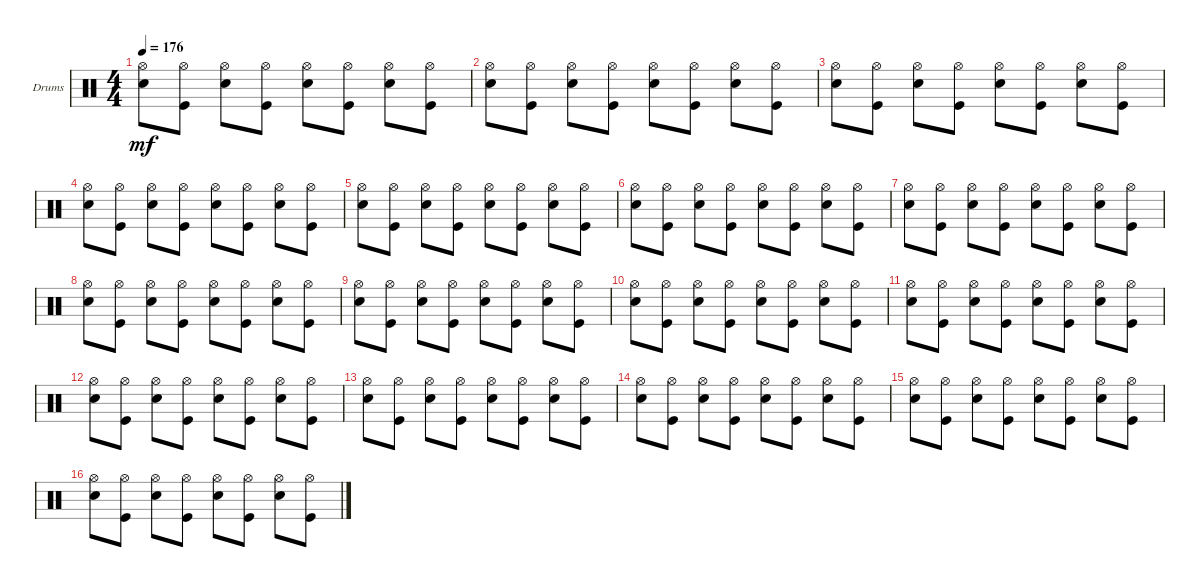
\bracketExtendMode groupsimilarinstruments
\firstSystemTrackNameOrientation horizontal
\otherSystemsTrackNameOrientation horizontal
\track ("Drums" "Drums") {instrument percussion}
\staff {score}
\articulation defaults
\ts (4 4)
\tempo 176
\clef neutral
\ks c
("Snare (hit) 2" "Hi-Hat (open)").8{dy mf} ("Kick (hit)" "Hi-Hat (open)").8 ("Snare (hit) 2" "Hi-Hat (open)").8 ("Kick (hit)" "Hi-Hat (open)").8 ("Snare (hit) 2" "Hi-Hat (open)").8 ("Kick (hit)" "Hi-Hat (open)").8 ("Snare (hit) 2" "Hi-Hat (open)").8 ("Kick (hit)" "Hi-Hat (open)").8 |
("Snare (hit) 2" "Hi-Hat (open)").8 ("Kick (hit)" "Hi-Hat (open)").8 ("Snare (hit) 2" "Hi-Hat (open)").8 ("Kick (hit)" "Hi-Hat (open)").8 ("Snare (hit) 2" "Hi-Hat (open)").8 ("Kick (hit)" "Hi-Hat (open)").8 ("Snare (hit) 2" "Hi-Hat (open)").8 ("Kick (hit)" "Hi-Hat (open)").8 |
("Snare (hit) 2" "Hi-Hat (open)").8 ("Kick (hit)" "Hi-Hat (open)").8 ("Snare (hit) 2" "Hi-Hat (open)").8 ("Kick (hit)" "Hi-Hat (open)").8 ("Snare (hit) 2" "Hi-Hat (open)").8 ("Kick (hit)" "Hi-Hat (open)").8 ("Snare (hit) 2" "Hi-Hat (open)").8 ("Kick (hit)" "Hi-Hat (open)").8 |
("Snare (hit) 2" "Hi-Hat (open)").8 ("Kick (hit)" "Hi-Hat (open)").8 ("Snare (hit) 2" "Hi-Hat (open)").8 ("Kick (hit)" "Hi-Hat (open)").8 ("Snare (hit) 2" "Hi-Hat (open)").8 ("Kick (hit)" "Hi-Hat (open)").8 ("Snare (hit) 2" "Hi-Hat (open)").8 ("Kick (hit)" "Hi-Hat (open)").8 |
("Snare (hit) 2" "Hi-Hat (open)").8 ("Kick (hit)" "Hi-Hat (open)").8 ("Snare (hit) 2" "Hi-Hat (open)").8 ("Kick (hit)" "Hi-Hat (open)").8 ("Snare (hit) 2" "Hi-Hat (open)").8 ("Kick (hit)" "Hi-Hat (open)").8 ("Snare (hit) 2" "Hi-Hat (open)").8 ("Kick (hit)" "Hi-Hat (open)").8 |
("Snare (hit) 2" "Hi-Hat (open)").8 ("Kick (hit)" "Hi-Hat (open)").8 ("Snare (hit) 2" "Hi-Hat (open)").8 ("Kick (hit)" "Hi-Hat (open)").8 ("Snare (hit) 2" "Hi-Hat (open)").8 ("Kick (hit)" "Hi-Hat (open)").8 ("Snare (hit) 2" "Hi-Hat (open)").8 ("Kick (hit)" "Hi-Hat (open)").8 |
("Snare (hit) 2" "Hi-Hat (open)").8 ("Kick (hit)" "Hi-Hat (open)").8 ("Snare (hit) 2" "Hi-Hat (open)").8 ("Kick (hit)" "Hi-Hat (open)").8 ("Snare (hit) 2" "Hi-Hat (open)").8 ("Kick (hit)" "Hi-Hat (open)").8 ("Snare (hit) 2" "Hi-Hat (open)").8 ("Kick (hit)" "Hi-Hat (open)").8 |
("Snare (hit) 2" "Hi-Hat (open)").8 ("Kick (hit)" "Hi-Hat (open)").8 ("Snare (hit) 2" "Hi-Hat (open)").8 ("Kick (hit)" "Hi-Hat (open)").8 ("Snare (hit) 2" "Hi-Hat (open)").8 ("Kick (hit)" "Hi-Hat (open)").8 ("Snare (hit) 2" "Hi-Hat (open)").8 ("Kick (hit)" "Hi-Hat (open)").8 |
("Snare (hit) 2" "Hi-Hat (open)").8 ("Kick (hit)" "Hi-Hat (open)").8 ("Snare (hit) 2" "Hi-Hat (open)").8 ("Kick (hit)" "Hi-Hat (open)").8 ("Snare (hit) 2" "Hi-Hat (open)").8 ("Kick (hit)" "Hi-Hat (open)").8 ("Snare (hit) 2" "Hi-Hat (open)").8 ("Kick (hit)" "Hi-Hat (open)").8 |
("Snare (hit) 2" "Hi-Hat (open)").8 ("Kick (hit)" "Hi-Hat (open)").8 ("Snare (hit) 2" "Hi-Hat (open)").8 ("Kick (hit)" "Hi-Hat (open)").8 ("Snare (hit) 2" "Hi-Hat (open)").8 ("Kick (hit)" "Hi-Hat (open)").8 ("Snare (hit) 2" "Hi-Hat (open)").8 ("Kick (hit)" "Hi-Hat (open)").8 |
("Snare (hit) 2" "Hi-Hat (open)").8 ("Kick (hit)" "Hi-Hat (open)").8 ("Snare (hit) 2" "Hi-Hat (open)").8 ("Kick (hit)" "Hi-Hat (open)").8 ("Snare (hit) 2" "Hi-Hat (open)").8 ("Kick (hit)" "Hi-Hat (open)").8 ("Snare (hit) 2" "Hi-Hat (open)").8 ("Kick (hit)" "Hi-Hat (open)").8 |
("Snare (hit) 2" "Hi-Hat (open)").8 ("Kick (hit)" "Hi-Hat (open)").8 ("Snare (hit) 2" "Hi-Hat (open)").8 ("Kick (hit)" "Hi-Hat (open)").8 ("Snare (hit) 2" "Hi-Hat (open)").8 ("Kick (hit)" "Hi-Hat (open)").8 ("Snare (hit) 2" "Hi-Hat (open)").8 ("Kick (hit)" "Hi-Hat (open)").8 |
("Snare (hit) 2" "Hi-Hat (open)").8 ("Kick (hit)" "Hi-Hat (open)").8 ("Snare (hit) 2" "Hi-Hat (open)").8 ("Kick (hit)" "Hi-Hat (open)").8 ("Snare (hit) 2" "Hi-Hat (open)").8 ("Kick (hit)" "Hi-Hat (open)").8 ("Snare (hit) 2" "Hi-Hat (open)").8 ("Kick (hit)" "Hi-Hat (open)").8 |
("Snare (hit) 2" "Hi-Hat (open)").8 ("Kick (hit)" "Hi-Hat (open)").8 ("Snare (hit) 2" "Hi-Hat (open)").8 ("Kick (hit)" "Hi-Hat (open)").8 ("Snare (hit) 2" "Hi-Hat (open)").8 ("Kick (hit)" "Hi-Hat (open)").8 ("Snare (hit) 2" "Hi-Hat (open)").8 ("Kick (hit)" "Hi-Hat (open)").8 |
("Snare (hit) 2" "Hi-Hat (open)").8 ("Kick (hit)" "Hi-Hat (open)").8 ("Snare (hit) 2" "Hi-Hat (open)").8 ("Kick (hit)" "Hi-Hat (open)").8 ("Snare (hit) 2" "Hi-Hat (open)").8 ("Kick (hit)" "Hi-Hat (open)").8 ("Snare (hit) 2" "Hi-Hat (open)").8 ("Kick (hit)" "Hi-Hat (open)").8 |
("Snare (hit) 2" "Hi-Hat (open)").8 ("Kick (hit)" "Hi-Hat (open)").8 ("Snare (hit) 2" "Hi-Hat (open)").8 ("Kick (hit)" "Hi-Hat (open)").8 ("Snare (hit) 2" "Hi-Hat (open)").8 ("Kick (hit)" "Hi-Hat (open)").8 ("Snare (hit) 2" "Hi-Hat (open)").8 ("Kick (hit)" "Hi-Hat (open)").8
